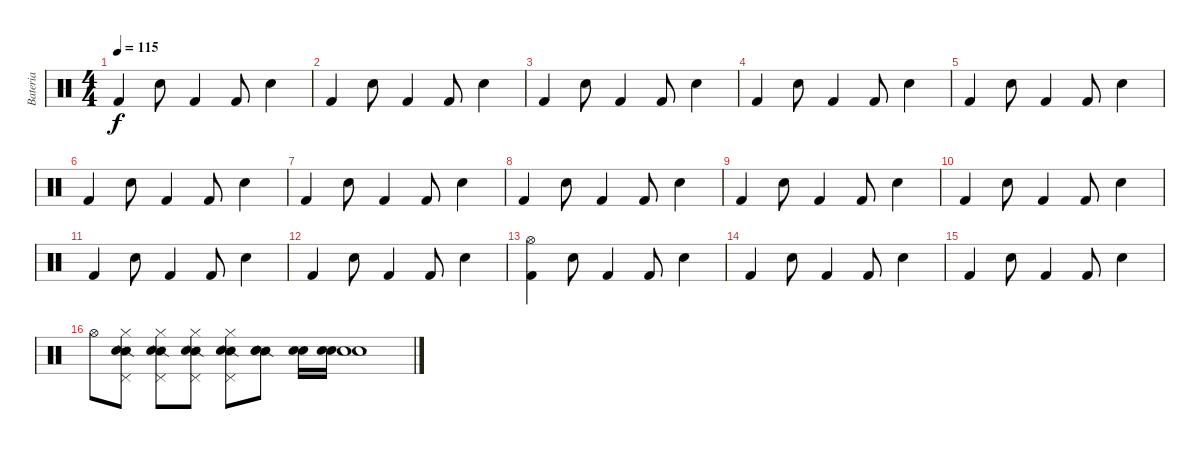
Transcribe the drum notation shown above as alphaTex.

\track ("Bateria" "Bateria") {instrument percussion}
\staff {score}
\articulation defaults
\ts (4 4)
\tempo 115
\clef neutral
\ks c "Kick (hit) 2".4{dy f} "Snare (hit) 2".8 "Kick (hit) 2".4 "Kick (hit) 2".8 "Snare (hit) 2".4
|
"Kick (hit) 2".4 "Snare (hit) 2".8 "Kick (hit) 2".4 "Kick (hit) 2".8 "Snare (hit) 2".4 |
"Kick (hit) 2".4 "Snare (hit) 2".8 "Kick (hit) 2".4 "Kick (hit) 2".8 "Snare (hit) 2".4 |
"Kick (hit) 2".4 "Snare (hit) 2".8 "Kick (hit) 2".4 "Kick (hit) 2".8 "Snare (hit) 2".4 |
"Kick (hit) 2".4 "Snare (hit) 2".8 "Kick (hit) 2".4 "Kick (hit) 2".8 "Snare (hit) 2".4 |
"Kick (hit) 2".4 "Snare (hit) 2".8 "Kick (hit) 2".4 "Kick (hit) 2".8 "Snare (hit) 2".4 |
"Kick (hit) 2".4 "Snare (hit) 2".8 "Kick (hit) 2".4 "Kick (hit) 2".8 "Snare (hit) 2".4 |
"Kick (hit) 2".4 "Snare (hit) 2".8 "Kick (hit) 2".4 "Kick (hit) 2".8 "Snare (hit) 2".4 |
"Kick (hit) 2".4 "Snare (hit) 2".8 "Kick (hit) 2".4 "Kick (hit) 2".8 "Snare (hit) 2".4 |
"Kick (hit) 2".4 "Snare (hit) 2".8 "Kick (hit) 2".4 "Kick (hit) 2".8 "Snare (hit) 2".4 |
"Kick (hit) 2".4 "Snare (hit) 2".8 "Kick (hit) 2".4 "Kick (hit) 2".8 "Snare (hit) 2".4 |
"Kick (hit) 2".4 "Snare (hit) 2".8 "Kick (hit) 2".4 "Kick (hit) 2".8 "Snare (hit) 2".4 |
("Kick (hit) 2" "Hi-Hat (open)").4 "Snare (hit) 2".8 "Kick (hit) 2".4 "Kick (hit) 2".8 "Snare (hit) 2".4 |
"Kick (hit) 2".4 "Snare (hit) 2".8 "Kick (hit) 2".4 "Kick (hit) 2".8 "Snare (hit) 2".4 |
"Kick (hit) 2".4 "Snare (hit) 2".8 "Kick (hit) 2".4 "Kick (hit) 2".8 "Snare (hit) 2".4 |
"Hi-Hat (open)".8 ("Snare (side stick) 2" "Pedal Hi-Hat (hit)" "Hi-Hat (closed)" "Electric Snare (hit)").8 ("Snare (side stick) 2" "Pedal Hi-Hat (hit)" "Hi-Hat (closed)" "Electric Snare (hit)").8 ("Snare (side stick) 2" "Pedal Hi-Hat (hit)" "Hi-Hat (closed)" "Electric Snare (hit)").8 ("Snare (side stick) 2" "Pedal Hi-Hat (hit)" "Hi-Hat (closed)" "Electric Snare (hit)").8 ("Snare (side stick) 2" "Electric Snare (hit)" "Snare (hit) 2").8 ("Electric Snare (hit)" "Snare (hit) 2").16 ("Electric Snare (hit)" "Snare (hit) 2").16 ("Electric Snare (hit)" "Snare (hit) 2").1
